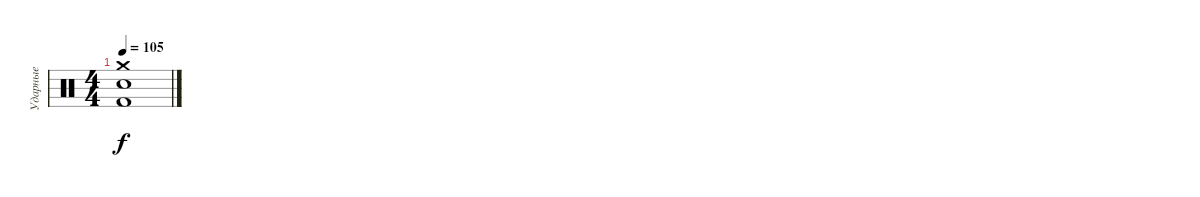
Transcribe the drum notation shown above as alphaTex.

\track ("Ударные" "Ударные") {instrument percussion}
\staff {score}
\articulation defaults
\ts (4 4)
\tempo 105
\clef neutral
\ks c
("Crash medium (hit)" "Snare (hit) 2" "Kick (hit) 2").1{dy f}
